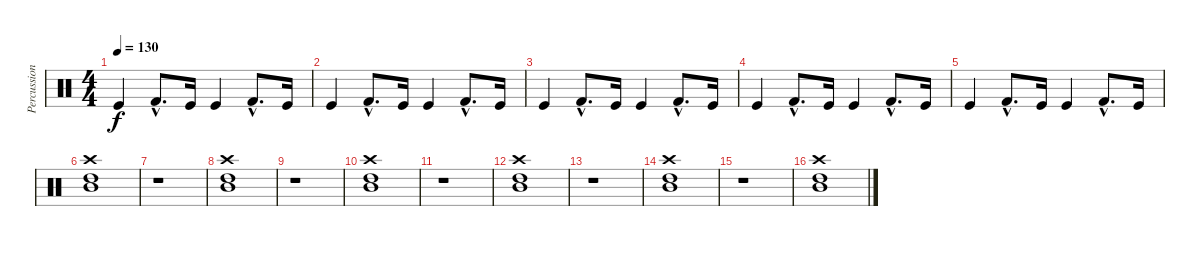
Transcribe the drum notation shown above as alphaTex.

\track ("Percussions" "Percussion") {instrument percussion}
\staff {score}
\articulation defaults
\ts (4 4)
\tempo 130
\clef neutral
\ks c "Kick (hit)".4{dy f} "Kick (hit) 2"{hac}.8{d} "Kick (hit)".16 "Kick (hit)".4 "Kick (hit) 2"{hac}.8{d} "Kick (hit)".16
|
"Kick (hit)".4 "Kick (hit) 2"{hac}.8{d} "Kick (hit)".16 "Kick (hit)".4 "Kick (hit) 2"{hac}.8{d} "Kick (hit)".16 |
"Kick (hit)".4 "Kick (hit) 2"{hac}.8{d} "Kick (hit)".16 "Kick (hit)".4 "Kick (hit) 2"{hac}.8{d} "Kick (hit)".16 |
"Kick (hit)".4 "Kick (hit) 2"{hac}.8{d} "Kick (hit)".16 "Kick (hit)".4 "Kick (hit) 2"{hac}.8{d} "Kick (hit)".16 |
"Kick (hit)".4 "Kick (hit) 2"{hac}.8{d} "Kick (hit)".16 "Kick (hit)".4 "Kick (hit) 2"{hac}.8{d} "Kick (hit)".16 |
("Mid Tom (hit)" "Crash high (hit)" "High Tom (hit)").1 |
r.1 |
("Mid Tom (hit)" "Crash high (hit)" "High Tom (hit)").1 |
r.1 |
("Mid Tom (hit)" "Crash high (hit)" "High Tom (hit)").1 |
r.1 |
("Mid Tom (hit)" "Crash high (hit)" "High Tom (hit)").1 |
r.1 |
("Mid Tom (hit)" "Crash high (hit)" "High Tom (hit)").1 |
r.1 |
("Mid Tom (hit)" "Crash high (hit)" "High Tom (hit)").1
